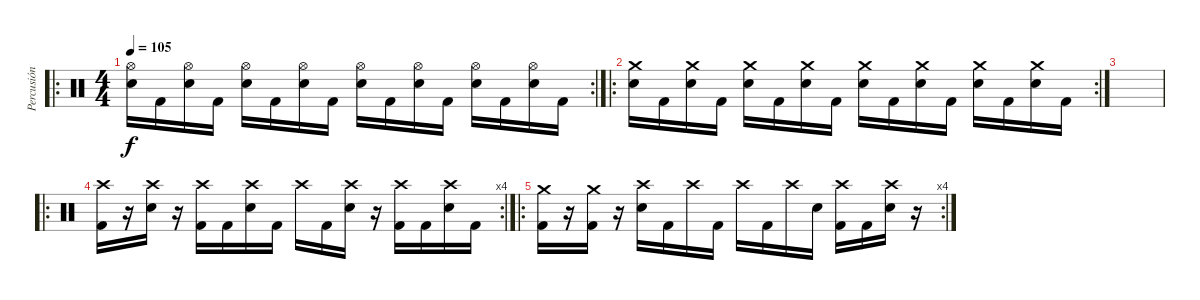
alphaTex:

\track ("Percusión" "Percusión") {instrument percussion}
\staff {score}
\articulation defaults
\ro
\rc 2
\ts (4 4)
\tempo 105
\clef neutral
\ks c
("Hi-Hat (open)" "Electric Snare (hit)").16{dy f} "Kick (hit) 2".16 ("Hi-Hat (open)" "Electric Snare (hit)").16 "Kick (hit) 2".16 ("Hi-Hat (open)" "Electric Snare (hit)").16 "Kick (hit) 2".16 ("Hi-Hat (open)" "Electric Snare (hit)").16 "Kick (hit) 2".16 ("Hi-Hat (open)" "Electric Snare (hit)").16 "Kick (hit) 2".16 ("Hi-Hat (open)" "Electric Snare (hit)").16 "Kick (hit) 2".16 ("Hi-Hat (open)" "Electric Snare (hit)").16 "Kick (hit) 2".16 ("Hi-Hat (open)" "Electric Snare (hit)").16 "Kick (hit) 2".16 |
\ro
\rc 2
("Crash medium (hit)" "Electric Snare (hit)").16 "Kick (hit) 2".16 ("Crash medium (hit)" "Electric Snare (hit)").16 "Kick (hit) 2".16 ("Crash medium (hit)" "Electric Snare (hit)").16 "Kick (hit) 2".16 ("Crash medium (hit)" "Electric Snare (hit)").16 "Kick (hit) 2".16 ("Crash medium (hit)" "Electric Snare (hit)").16 "Kick (hit) 2".16 ("Crash medium (hit)" "Electric Snare (hit)").16 "Kick (hit) 2".16 ("Crash medium (hit)" "Electric Snare (hit)").16 "Kick (hit) 2".16 ("Crash medium (hit)" "Electric Snare (hit)").16 "Kick (hit) 2".16 |
|
\ro
\rc 4
("Crash high (hit)" "Kick (hit) 2").16 r.16 ("Crash high (hit)" "Electric Snare (hit)").16 r.16 ("Crash high (hit)" "Kick (hit) 2").16 "Kick (hit) 2".16 ("Crash high (hit)" "Electric Snare (hit)").16 "Kick (hit) 2".16 "Crash high (hit)".16 "Kick (hit) 2".16 ("Crash high (hit)" "Electric Snare (hit)").16 r.16 ("Crash high (hit)" "Kick (hit) 2").16 "Kick (hit) 2".16 ("Crash high (hit)" "Electric Snare (hit)").16 "Kick (hit) 2".16 |
\ro
\rc 4
("Crash medium (hit)" "Kick (hit) 2").16 r.16 ("Crash medium (hit)" "Kick (hit) 2").16 r.16 ("Crash high (hit)" "Electric Snare (hit)").16 "Kick (hit) 2".16 "Crash high (hit)".16 "Kick (hit) 2".16 "Crash high (hit)".16 "Kick (hit) 2".16 "Crash high (hit)".16 "Electric Snare (hit)".16 ("Crash high (hit)" "Kick (hit) 2").16 "Kick (hit) 2".16 ("Crash high (hit)" "Electric Snare (hit)").16 r.16
